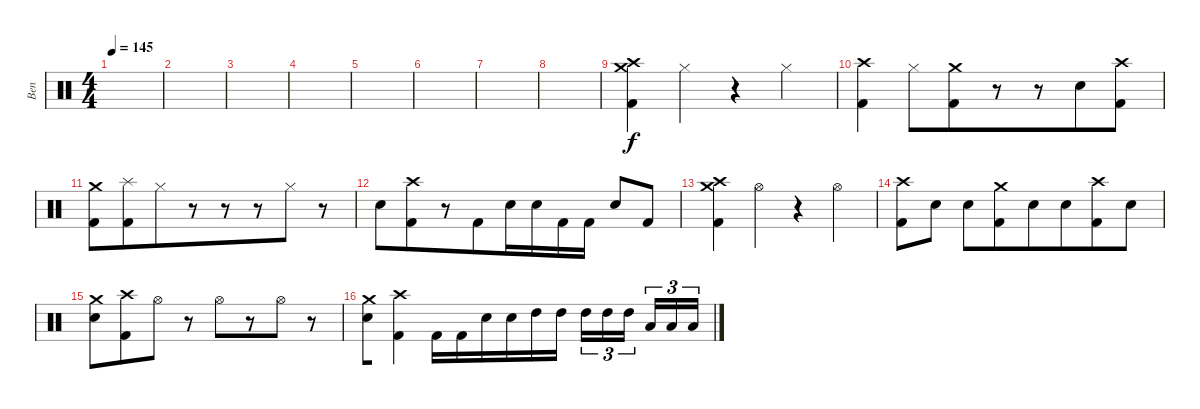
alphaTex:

\track ("Ben" "Ben") {instrument percussion}
\staff {score}
\articulation defaults
\ts (4 4)
\tempo 145
\clef neutral
\ks c
|
|
|
|
|
|
|
|
("Crash high (hit)" "Kick (hit) 2" "Crash medium (hit)").4{beam merge} "Hi-Hat (closed)".4 r.4{beam merge} "Hi-Hat (closed)".4 |
("Crash high (hit)" "Kick (hit) 2").4{beam merge} "Hi-Hat (closed)".8 ("Crash medium (hit)" "Kick (hit) 2").8{beam merge} r.8 r.8{beam merge} "Electric Snare (hit)".8{beam merge} ("Crash high (hit)" "Kick (hit) 2").8 |
("Crash medium (hit)" "Kick (hit) 2").8{beam merge} ("Splash (hit)" "Kick (hit) 2").8{beam merge} "Hi-Hat (closed)".8{beam merge} r.8{beam merge} r.8{beam merge} r.8 "Hi-Hat (closed)".8 r.8 |
"Electric Snare (hit)".8 ("Kick (hit) 2" "Crash high (hit)").8{beam merge} r.8 "Kick (hit) 2".8{beam merge} "Electric Snare (hit)".16{beam merge} "Electric Snare (hit)".16 "Kick (hit) 2".16{beam merge} "Kick (hit) 2".16 "Electric Snare (hit)".8{beam merge} "Kick (hit) 2".8 |
("Kick (hit) 2" "Crash high (hit)" "Crash medium (hit)").4{beam merge} "Hi-Hat (open)".4{beam merge} r.4{beam merge} "Hi-Hat (open)".4 |
("Crash high (hit)" "Kick (hit) 2").8{beam merge} "Electric Snare (hit)".8 "Electric Snare (hit)".8 ("Kick (hit) 2" "Crash medium (hit)").8{beam merge} "Electric Snare (hit)".8 "Electric Snare (hit)".8{beam merge} ("Crash high (hit)" "Kick (hit) 2").8{beam merge} "Electric Snare (hit)".8 |
("Crash medium (hit)" "Electric Snare (hit)").8{beam merge} ("Crash high (hit)" "Kick (hit) 2").8{beam merge} "Hi-Hat (open)".8 r.8{beam merge} "Hi-Hat (open)".8{beam merge} r.8{beam merge} "Hi-Hat (open)".8{beam merge} r.8 |
("Electric Snare (hit)" "Crash medium (hit)").8{beam merge} ("Kick (hit) 2" "Crash high (hit)").4{beam merge} "Kick (hit) 2".16 "Kick (hit) 2".16{beam merge} "Electric Snare (hit)".16 "Electric Snare (hit)".16 "High Tom (hit)".16{beam merge} "High Tom (hit)".16 "High Tom (hit)".16{tu (3 2) beam merge} "High Tom (hit)".16{tu (3 2) beam merge} "High Tom (hit)".16{tu (3 2) beam splitsecondary} "Low Tom (hit)".16{tu (3 2) beam merge} "Low Tom (hit)".16{tu (3 2)} "Low Tom (hit)".16{tu (3 2)}
